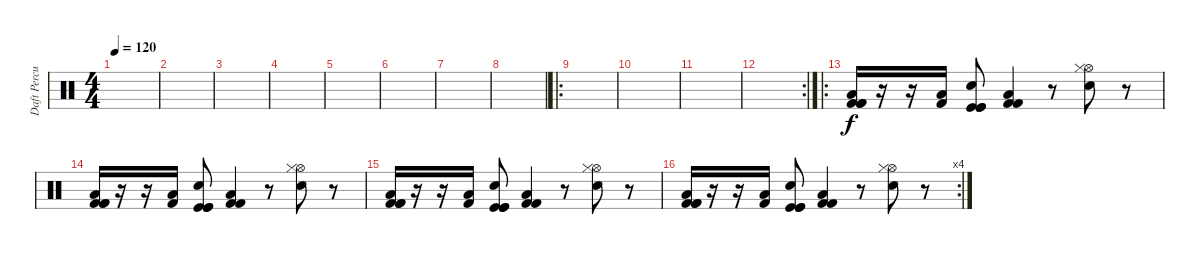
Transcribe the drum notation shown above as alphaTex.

\track ("Daft Percussion 2" "Daft Percu") {instrument percussion}
\staff {score}
\articulation defaults
\ts (4 4)
\tempo 120
\clef neutral
\ks c
|
|
|
|
|
|
|
|
\ro
|
|
|
\rc 2
|
\ro
("Kick (hit) 2" "Low Floor Tom (hit)" "Kick (hit) 2" "Kick (hit) 2").16 r.16 r.16 ("Low Floor Tom (hit)" "Kick (hit) 2").16 ("Electric Snare (hit)" "Kick (hit)" "Kick (hit)" "Kick (hit)").8 ("Low Floor Tom (hit)" "Kick (hit) 2" "Kick (hit) 2").4 r.8 ("Hi-Hat (open)" "Hi-Hat (closed)" "Electric Snare (hit)").8 r.8 |
("Kick (hit) 2" "Low Floor Tom (hit)" "Kick (hit) 2" "Kick (hit) 2").16 r.16 r.16 ("Low Floor Tom (hit)" "Kick (hit) 2").16 ("Electric Snare (hit)" "Kick (hit)" "Kick (hit)" "Kick (hit)").8 ("Low Floor Tom (hit)" "Kick (hit) 2" "Kick (hit) 2").4 r.8 ("Hi-Hat (open)" "Hi-Hat (closed)" "Electric Snare (hit)").8 r.8 |
("Kick (hit) 2" "Low Floor Tom (hit)" "Kick (hit) 2" "Kick (hit) 2").16 r.16 r.16 ("Low Floor Tom (hit)" "Kick (hit) 2").16 ("Electric Snare (hit)" "Kick (hit)" "Kick (hit)" "Kick (hit)").8 ("Low Floor Tom (hit)" "Kick (hit) 2" "Kick (hit) 2").4 r.8 ("Hi-Hat (open)" "Hi-Hat (closed)" "Electric Snare (hit)").8 r.8 |
\rc 4
("Kick (hit) 2" "Low Floor Tom (hit)" "Kick (hit) 2" "Kick (hit) 2").16 r.16 r.16 ("Low Floor Tom (hit)" "Kick (hit) 2").16 ("Electric Snare (hit)" "Kick (hit)" "Kick (hit)" "Kick (hit)").8 ("Low Floor Tom (hit)" "Kick (hit) 2" "Kick (hit) 2").4 r.8 ("Hi-Hat (open)" "Hi-Hat (closed)" "Electric Snare (hit)").8 r.8
